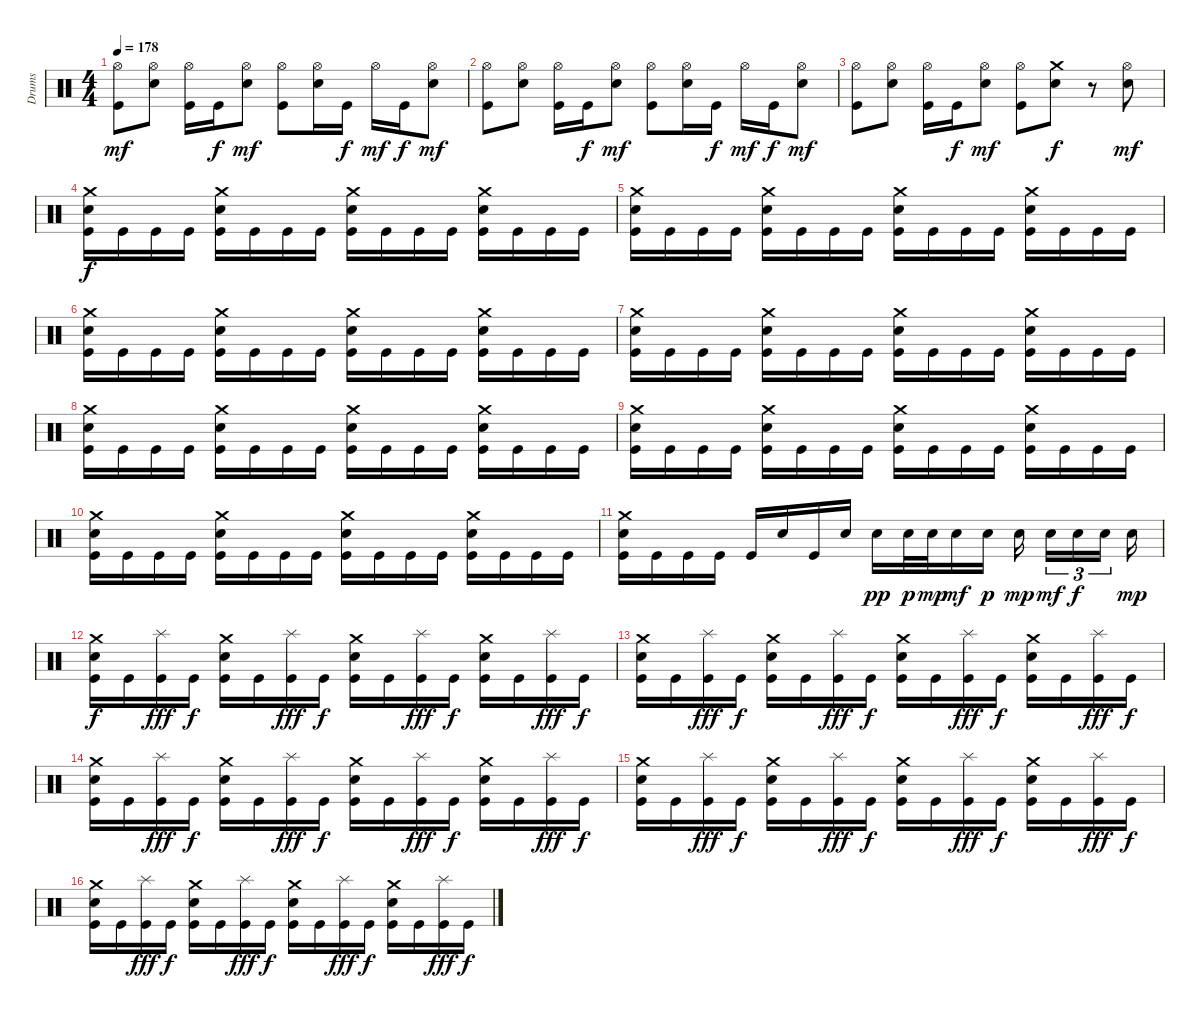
\track ("Drums" "Drums") {instrument percussion}
\staff {score}
\articulation defaults
\ts (4 4)
\tempo 178
\clef neutral
\ks c
("Hi-Hat (open)" "Kick (hit)").8{dy mf} ("Hi-Hat (open)" "Electric Snare (hit)").8 ("Hi-Hat (open)" "Kick (hit)").16 "Kick (hit)".16{dy f} ("Hi-Hat (open)" "Electric Snare (hit)").8{dy mf} ("Hi-Hat (open)" "Kick (hit)").8 ("Hi-Hat (open)" "Electric Snare (hit)").16 "Kick (hit)".16{dy f} "Hi-Hat (open)".16{dy mf} "Kick (hit)".16{dy f} ("Hi-Hat (open)" "Electric Snare (hit)").8{dy mf} |
("Hi-Hat (open)" "Kick (hit)").8 ("Hi-Hat (open)" "Electric Snare (hit)").8 ("Hi-Hat (open)" "Kick (hit)").16 "Kick (hit)".16{dy f} ("Hi-Hat (open)" "Electric Snare (hit)").8{dy mf} ("Hi-Hat (open)" "Kick (hit)").8 ("Hi-Hat (open)" "Electric Snare (hit)").16 "Kick (hit)".16{dy f} "Hi-Hat (open)".16{dy mf} "Kick (hit)".16{dy f} ("Hi-Hat (open)" "Electric Snare (hit)").8{dy mf} |
("Hi-Hat (open)" "Kick (hit)").8 ("Hi-Hat (open)" "Electric Snare (hit)").8 ("Hi-Hat (open)" "Kick (hit)").16 "Kick (hit)".16{dy f} ("Hi-Hat (open)" "Electric Snare (hit)").8{dy mf} ("Hi-Hat (open)" "Kick (hit)").8 ("Crash medium (hit)" "Electric Snare (hit)").8{dy f} r.8 ("Hi-Hat (open)" "Electric Snare (hit)").8{dy mf} |
("Crash medium (hit)" "Electric Snare (hit)" "Kick (hit)").16{dy f} "Kick (hit)".16 "Kick (hit)".16 "Kick (hit)".16 ("Crash medium (hit)" "Electric Snare (hit)" "Kick (hit)").16 "Kick (hit)".16 "Kick (hit)".16 "Kick (hit)".16 ("Crash medium (hit)" "Electric Snare (hit)" "Kick (hit)").16 "Kick (hit)".16 "Kick (hit)".16 "Kick (hit)".16 ("Crash medium (hit)" "Electric Snare (hit)" "Kick (hit)").16 "Kick (hit)".16 "Kick (hit)".16 "Kick (hit)".16 |
("Crash medium (hit)" "Electric Snare (hit)" "Kick (hit)").16 "Kick (hit)".16 "Kick (hit)".16 "Kick (hit)".16 ("Crash medium (hit)" "Electric Snare (hit)" "Kick (hit)").16 "Kick (hit)".16 "Kick (hit)".16 "Kick (hit)".16 ("Crash medium (hit)" "Electric Snare (hit)" "Kick (hit)").16 "Kick (hit)".16 "Kick (hit)".16 "Kick (hit)".16 ("Crash medium (hit)" "Electric Snare (hit)" "Kick (hit)").16 "Kick (hit)".16 "Kick (hit)".16 "Kick (hit)".16 |
("Crash medium (hit)" "Electric Snare (hit)" "Kick (hit)").16 "Kick (hit)".16 "Kick (hit)".16 "Kick (hit)".16 ("Crash medium (hit)" "Electric Snare (hit)" "Kick (hit)").16 "Kick (hit)".16 "Kick (hit)".16 "Kick (hit)".16 ("Crash medium (hit)" "Electric Snare (hit)" "Kick (hit)").16 "Kick (hit)".16 "Kick (hit)".16 "Kick (hit)".16 ("Crash medium (hit)" "Electric Snare (hit)" "Kick (hit)").16 "Kick (hit)".16 "Kick (hit)".16 "Kick (hit)".16 |
("Crash medium (hit)" "Electric Snare (hit)" "Kick (hit)").16 "Kick (hit)".16 "Kick (hit)".16 "Kick (hit)".16 ("Crash medium (hit)" "Electric Snare (hit)" "Kick (hit)").16 "Kick (hit)".16 "Kick (hit)".16 "Kick (hit)".16 ("Crash medium (hit)" "Electric Snare (hit)" "Kick (hit)").16 "Kick (hit)".16 "Kick (hit)".16 "Kick (hit)".16 ("Crash medium (hit)" "Electric Snare (hit)" "Kick (hit)").16 "Kick (hit)".16 "Kick (hit)".16 "Kick (hit)".16 |
("Crash medium (hit)" "Electric Snare (hit)" "Kick (hit)").16 "Kick (hit)".16 "Kick (hit)".16 "Kick (hit)".16 ("Crash medium (hit)" "Electric Snare (hit)" "Kick (hit)").16 "Kick (hit)".16 "Kick (hit)".16 "Kick (hit)".16 ("Crash medium (hit)" "Electric Snare (hit)" "Kick (hit)").16 "Kick (hit)".16 "Kick (hit)".16 "Kick (hit)".16 ("Crash medium (hit)" "Electric Snare (hit)" "Kick (hit)").16 "Kick (hit)".16 "Kick (hit)".16 "Kick (hit)".16 |
("Crash medium (hit)" "Electric Snare (hit)" "Kick (hit)").16 "Kick (hit)".16 "Kick (hit)".16 "Kick (hit)".16 ("Crash medium (hit)" "Electric Snare (hit)" "Kick (hit)").16 "Kick (hit)".16 "Kick (hit)".16 "Kick (hit)".16 ("Crash medium (hit)" "Electric Snare (hit)" "Kick (hit)").16 "Kick (hit)".16 "Kick (hit)".16 "Kick (hit)".16 ("Crash medium (hit)" "Electric Snare (hit)" "Kick (hit)").16 "Kick (hit)".16 "Kick (hit)".16 "Kick (hit)".16 |
("Crash medium (hit)" "Electric Snare (hit)" "Kick (hit)").16 "Kick (hit)".16 "Kick (hit)".16 "Kick (hit)".16 ("Crash medium (hit)" "Electric Snare (hit)" "Kick (hit)").16 "Kick (hit)".16 "Kick (hit)".16 "Kick (hit)".16 ("Crash medium (hit)" "Electric Snare (hit)" "Kick (hit)").16 "Kick (hit)".16 "Kick (hit)".16 "Kick (hit)".16 ("Crash medium (hit)" "Electric Snare (hit)" "Kick (hit)").16 "Kick (hit)".16 "Kick (hit)".16 "Kick (hit)".16 |
("Crash medium (hit)" "Electric Snare (hit)" "Kick (hit)").16 "Kick (hit)".16 "Kick (hit)".16 "Kick (hit)".16 "Kick (hit)".16 "Electric Snare (hit)".16 "Kick (hit)".16 "Electric Snare (hit)".16 "Electric Snare (hit)".16{dy pp} "Electric Snare (hit)".32{dy p} "Electric Snare (hit)".32{dy mp} "Electric Snare (hit)".16{dy mf} "Electric Snare (hit)".16{dy p} "Electric Snare (hit)".16{dy mp} "Electric Snare (hit)".16{tu (3 2) dy mf} "Electric Snare (hit)".16{tu (3 2) dy f} "Electric Snare (hit)".16{tu (3 2)} "Electric Snare (hit)".16{dy mp} |
("Crash medium (hit)" "Electric Snare (hit)" "Kick (hit)").16{dy f} "Kick (hit)".16 ("Splash (hit)" "Kick (hit)").16{dy fff} "Kick (hit)".16{dy f} ("Crash medium (hit)" "Electric Snare (hit)" "Kick (hit)").16 "Kick (hit)".16 ("Splash (hit)" "Kick (hit)").16{dy fff} "Kick (hit)".16{dy f} ("Crash medium (hit)" "Electric Snare (hit)" "Kick (hit)").16 "Kick (hit)".16 ("Splash (hit)" "Kick (hit)").16{dy fff} "Kick (hit)".16{dy f} ("Crash medium (hit)" "Electric Snare (hit)" "Kick (hit)").16 "Kick (hit)".16 ("Splash (hit)" "Kick (hit)").16{dy fff} "Kick (hit)".16{dy f} |
("Crash medium (hit)" "Electric Snare (hit)" "Kick (hit)").16 "Kick (hit)".16 ("Splash (hit)" "Kick (hit)").16{dy fff} "Kick (hit)".16{dy f} ("Crash medium (hit)" "Electric Snare (hit)" "Kick (hit)").16 "Kick (hit)".16 ("Splash (hit)" "Kick (hit)").16{dy fff} "Kick (hit)".16{dy f} ("Crash medium (hit)" "Electric Snare (hit)" "Kick (hit)").16 "Kick (hit)".16 ("Splash (hit)" "Kick (hit)").16{dy fff} "Kick (hit)".16{dy f} ("Crash medium (hit)" "Electric Snare (hit)" "Kick (hit)").16 "Kick (hit)".16 ("Splash (hit)" "Kick (hit)").16{dy fff} "Kick (hit)".16{dy f} |
("Crash medium (hit)" "Electric Snare (hit)" "Kick (hit)").16 "Kick (hit)".16 ("Splash (hit)" "Kick (hit)").16{dy fff} "Kick (hit)".16{dy f} ("Crash medium (hit)" "Electric Snare (hit)" "Kick (hit)").16 "Kick (hit)".16 ("Splash (hit)" "Kick (hit)").16{dy fff} "Kick (hit)".16{dy f} ("Crash medium (hit)" "Electric Snare (hit)" "Kick (hit)").16 "Kick (hit)".16 ("Splash (hit)" "Kick (hit)").16{dy fff} "Kick (hit)".16{dy f} ("Crash medium (hit)" "Electric Snare (hit)" "Kick (hit)").16 "Kick (hit)".16 ("Splash (hit)" "Kick (hit)").16{dy fff} "Kick (hit)".16{dy f} |
("Crash medium (hit)" "Electric Snare (hit)" "Kick (hit)").16 "Kick (hit)".16 ("Splash (hit)" "Kick (hit)").16{dy fff} "Kick (hit)".16{dy f} ("Crash medium (hit)" "Electric Snare (hit)" "Kick (hit)").16 "Kick (hit)".16 ("Splash (hit)" "Kick (hit)").16{dy fff} "Kick (hit)".16{dy f} ("Crash medium (hit)" "Electric Snare (hit)" "Kick (hit)").16 "Kick (hit)".16 ("Splash (hit)" "Kick (hit)").16{dy fff} "Kick (hit)".16{dy f} ("Crash medium (hit)" "Electric Snare (hit)" "Kick (hit)").16 "Kick (hit)".16 ("Splash (hit)" "Kick (hit)").16{dy fff} "Kick (hit)".16{dy f} |
("Crash medium (hit)" "Electric Snare (hit)" "Kick (hit)").16 "Kick (hit)".16 ("Splash (hit)" "Kick (hit)").16{dy fff} "Kick (hit)".16{dy f} ("Crash medium (hit)" "Electric Snare (hit)" "Kick (hit)").16 "Kick (hit)".16 ("Splash (hit)" "Kick (hit)").16{dy fff} "Kick (hit)".16{dy f} ("Crash medium (hit)" "Electric Snare (hit)" "Kick (hit)").16 "Kick (hit)".16 ("Splash (hit)" "Kick (hit)").16{dy fff} "Kick (hit)".16{dy f} ("Crash medium (hit)" "Electric Snare (hit)" "Kick (hit)").16 "Kick (hit)".16 ("Splash (hit)" "Kick (hit)").16{dy fff} "Kick (hit)".16{dy f}
